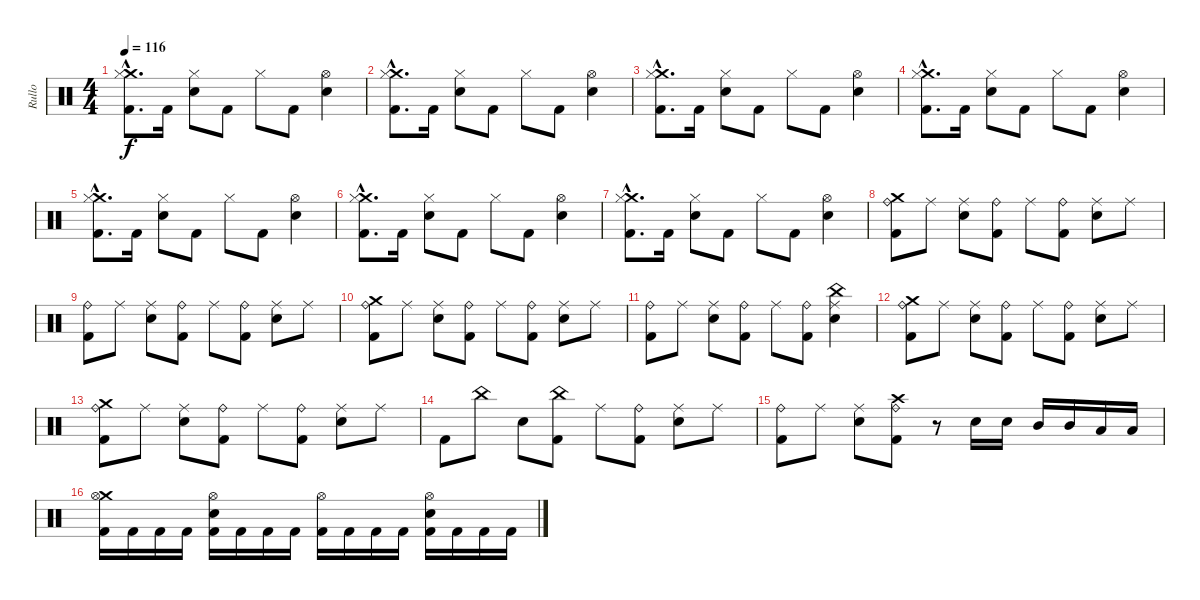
\track ("Rullo" "Rullo") {instrument percussion}
\staff {score}
\articulation defaults
\ts (4 4)
\tempo 116
\clef neutral
\ks c
("Crash medium (hit)"{hac} "Hi-Hat (closed)"{hac} "Kick (hit) 2"{hac}).8{d dy f} "Kick (hit) 2".16 ("Hi-Hat (closed)" "Electric Snare (hit)").8 "Kick (hit) 2".8 "Hi-Hat (closed)".8 "Kick (hit) 2".8 ("Hi-Hat (open)" "Electric Snare (hit)").4 |
("Crash medium (hit)"{hac} "Hi-Hat (closed)"{hac} "Kick (hit) 2"{hac}).8{d} "Kick (hit) 2".16 ("Hi-Hat (closed)" "Electric Snare (hit)").8 "Kick (hit) 2".8 "Hi-Hat (closed)".8 "Kick (hit) 2".8 ("Hi-Hat (open)" "Electric Snare (hit)").4 |
("Crash medium (hit)"{hac} "Hi-Hat (closed)"{hac} "Kick (hit) 2"{hac}).8{d} "Kick (hit) 2".16 ("Hi-Hat (closed)" "Electric Snare (hit)").8 "Kick (hit) 2".8 "Hi-Hat (closed)".8 "Kick (hit) 2".8 ("Hi-Hat (open)" "Electric Snare (hit)").4 |
("Crash medium (hit)"{hac} "Hi-Hat (closed)"{hac} "Kick (hit) 2"{hac}).8{d} "Kick (hit) 2".16 ("Hi-Hat (closed)" "Electric Snare (hit)").8 "Kick (hit) 2".8 "Hi-Hat (closed)".8 "Kick (hit) 2".8 ("Hi-Hat (open)" "Electric Snare (hit)").4 |
("Crash medium (hit)"{hac} "Hi-Hat (closed)"{hac} "Kick (hit) 2"{hac}).8{d} "Kick (hit) 2".16 ("Hi-Hat (closed)" "Electric Snare (hit)").8 "Kick (hit) 2".8 "Hi-Hat (closed)".8 "Kick (hit) 2".8 ("Hi-Hat (open)" "Electric Snare (hit)").4 |
("Crash medium (hit)"{hac} "Hi-Hat (closed)"{hac} "Kick (hit) 2"{hac}).8{d} "Kick (hit) 2".16 ("Hi-Hat (closed)" "Electric Snare (hit)").8 "Kick (hit) 2".8 "Hi-Hat (closed)".8 "Kick (hit) 2".8 ("Hi-Hat (open)" "Electric Snare (hit)").4 |
("Crash medium (hit)"{hac} "Hi-Hat (closed)"{hac} "Kick (hit) 2"{hac}).8{d} "Kick (hit) 2".16 ("Hi-Hat (closed)" "Electric Snare (hit)").8 "Kick (hit) 2".8 "Hi-Hat (closed)".8 "Kick (hit) 2".8 ("Hi-Hat (open)" "Electric Snare (hit)").4 |
("Crash medium (hit)" "Ride (bell)" "Kick (hit) 2").8 "Ride (middle)".8 ("Ride (middle)" "Electric Snare (hit)").8 ("Ride (bell)" "Kick (hit) 2").8 "Ride (middle)".8 ("Ride (bell)" "Kick (hit) 2").8 ("Ride (middle)" "Electric Snare (hit)").8 "Ride (middle)".8 |
("Ride (bell)" "Kick (hit) 2").8 "Ride (middle)".8 ("Ride (middle)" "Electric Snare (hit)").8 ("Ride (bell)" "Kick (hit) 2").8 "Ride (middle)".8 ("Ride (bell)" "Kick (hit) 2").8 ("Ride (middle)" "Electric Snare (hit)").8 "Ride (middle)".8 |
("Crash medium (hit)" "Ride (bell)" "Kick (hit) 2").8 "Ride (middle)".8 ("Ride (middle)" "Electric Snare (hit)").8 ("Ride (bell)" "Kick (hit) 2").8 "Ride (middle)".8 ("Ride (bell)" "Kick (hit) 2").8 ("Ride (middle)" "Electric Snare (hit)").8 "Ride (middle)".8 |
("Ride (bell)" "Kick (hit) 2").8 "Ride (middle)".8 ("Ride (middle)" "Electric Snare (hit)").8 ("Ride (bell)" "Kick (hit) 2").8 "Ride (middle)".8 ("Ride (bell)" "Kick (hit) 2").8 ("China (hit)" "Ride (middle)" "Electric Snare (hit)").4 |
("Crash medium (hit)" "Ride (bell)" "Kick (hit) 2").8 "Ride (middle)".8 ("Ride (middle)" "Electric Snare (hit)").8 ("Ride (bell)" "Kick (hit) 2").8 "Ride (middle)".8 ("Ride (bell)" "Kick (hit) 2").8 ("Ride (middle)" "Electric Snare (hit)").8 "Ride (middle)".8 |
("Crash medium (hit)" "Ride (bell)" "Kick (hit) 2").8 "Ride (middle)".8 ("Ride (middle)" "Electric Snare (hit)").8 ("Ride (bell)" "Kick (hit) 2").8 "Ride (middle)".8 ("Ride (bell)" "Kick (hit) 2").8 ("Ride (middle)" "Electric Snare (hit)").8 "Ride (middle)".8 |
"Kick (hit) 2".8 "China (hit)".8 "Electric Snare (hit)".8 ("China (hit)" "Kick (hit) 2").8 "Ride (middle)".8 ("Ride (bell)" "Kick (hit) 2").8 ("Ride (middle)" "Electric Snare (hit)").8 "Ride (middle)".8 |
("Ride (bell)" "Kick (hit) 2").8 "Ride (middle)".8 ("Ride (middle)" "Electric Snare (hit)").8 ("Crash high (hit)" "Ride (bell)" "Kick (hit) 2").8 r.8 "Electric Snare (hit)".16 "Electric Snare (hit)".16 "Mid Tom (hit)".16 "Mid Tom (hit)".16 "Low Tom (hit)".16 "Low Tom (hit)".16 |
("Crash medium (hit)" "Hi-Hat (open)" "Kick (hit) 2").16 "Kick (hit) 2".16 "Kick (hit) 2".16 "Kick (hit) 2".16 ("Hi-Hat (open)" "Electric Snare (hit)" "Kick (hit) 2").16 "Kick (hit) 2".16 "Kick (hit) 2".16 "Kick (hit) 2".16 ("Hi-Hat (open)" "Kick (hit) 2").16 "Kick (hit) 2".16 "Kick (hit) 2".16 "Kick (hit) 2".16 ("Hi-Hat (open)" "Electric Snare (hit)" "Kick (hit) 2").16 "Kick (hit) 2".16 "Kick (hit) 2".16 "Kick (hit) 2".16
